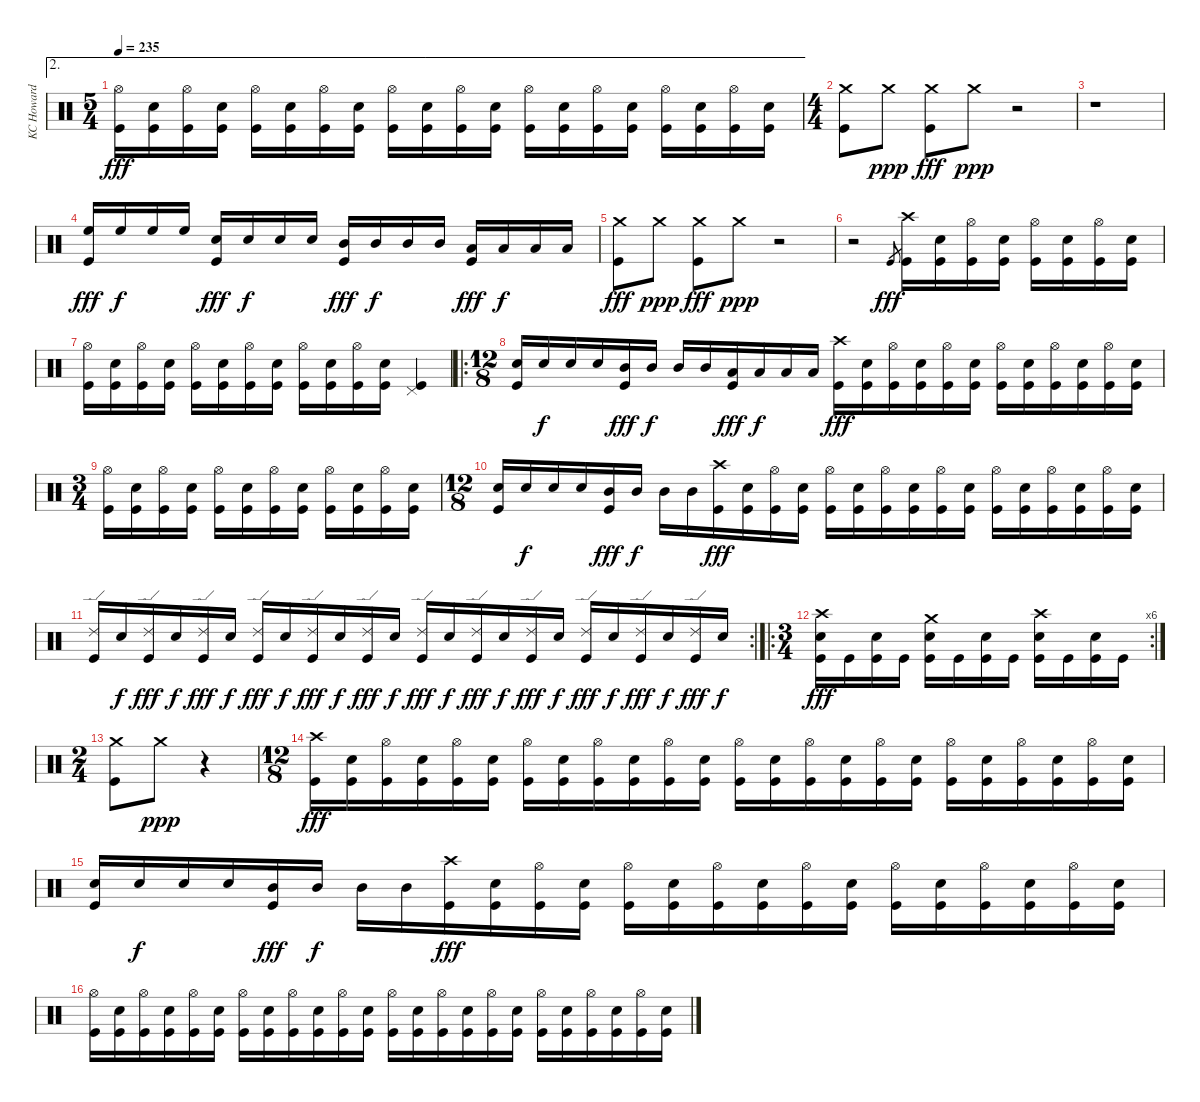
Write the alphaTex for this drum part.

\track ("KC Howard" "KC Howard") {instrument percussion}
\staff {score}
\articulation defaults
\ae 2
\ts (5 4)
\tempo 235
\clef neutral
\ks c
("Hi-Hat (open)" "Kick (hit)").16{dy fff} ("Electric Snare (hit)" "Kick (hit)").16 ("Hi-Hat (open)" "Kick (hit)").16 ("Electric Snare (hit)" "Kick (hit)").16 ("Hi-Hat (open)" "Kick (hit)").16 ("Electric Snare (hit)" "Kick (hit)").16 ("Hi-Hat (open)" "Kick (hit)").16 ("Electric Snare (hit)" "Kick (hit)").16 ("Hi-Hat (open)" "Kick (hit)").16 ("Electric Snare (hit)" "Kick (hit)").16 ("Hi-Hat (open)" "Kick (hit)").16 ("Electric Snare (hit)" "Kick (hit)").16 ("Hi-Hat (open)" "Kick (hit)").16 ("Electric Snare (hit)" "Kick (hit)").16 ("Hi-Hat (open)" "Kick (hit)").16 ("Electric Snare (hit)" "Kick (hit)").16 ("Hi-Hat (open)" "Kick (hit)").16 ("Electric Snare (hit)" "Kick (hit)").16 ("Hi-Hat (open)" "Kick (hit)").16 ("Electric Snare (hit)" "Kick (hit)").16 |
\ts (4 4)
("Crash medium (hit)" "Kick (hit)").8 "Crash medium (hit)".8{dy ppp} ("Crash medium (hit)" "Kick (hit)").8{dy fff} "Crash medium (hit)".8{dy ppp} r.2 |
r.1 |
("High Floor Tom (hit)" "Kick (hit)").16{dy fff} "High Floor Tom (hit)".16{dy f} "High Floor Tom (hit)".16 "High Floor Tom (hit)".16 ("Electric Snare (hit)" "Kick (hit)").16{dy fff} "Electric Snare (hit)".16{dy f} "Electric Snare (hit)".16 "Electric Snare (hit)".16 ("Mid Tom (hit)" "Kick (hit)").16{dy fff} "Mid Tom (hit)".16{dy f} "Mid Tom (hit)".16 "Mid Tom (hit)".16 ("Low Tom (hit)" "Kick (hit)").16{dy fff} "Low Tom (hit)".16{dy f} "Low Tom (hit)".16 "Low Tom (hit)".16 |
("Crash medium (hit)" "Kick (hit)").8{dy fff} "Crash medium (hit)".8{dy ppp} ("Crash medium (hit)" "Kick (hit)").8{dy fff} "Crash medium (hit)".8{dy ppp} r.2 |
r.2 "Kick (hit)".8{gr dy fff} ("Crash high (hit)" "Kick (hit)").16 ("Electric Snare (hit)" "Kick (hit)").16 ("Hi-Hat (open)" "Kick (hit)").16 ("Electric Snare (hit)" "Kick (hit)").16 ("Hi-Hat (open)" "Kick (hit)").16 ("Electric Snare (hit)" "Kick (hit)").16 ("Hi-Hat (open)" "Kick (hit)").16 ("Electric Snare (hit)" "Kick (hit)").16 |
("Hi-Hat (open)" "Kick (hit)").16 ("Electric Snare (hit)" "Kick (hit)").16 ("Hi-Hat (open)" "Kick (hit)").16 ("Electric Snare (hit)" "Kick (hit)").16 ("Hi-Hat (open)" "Kick (hit)").16 ("Electric Snare (hit)" "Kick (hit)").16 ("Hi-Hat (open)" "Kick (hit)").16 ("Electric Snare (hit)" "Kick (hit)").16 ("Hi-Hat (open)" "Kick (hit)").16 ("Electric Snare (hit)" "Kick (hit)").16 ("Hi-Hat (open)" "Kick (hit)").16 ("Electric Snare (hit)" "Kick (hit)").16 ("Pedal Hi-Hat (hit)" "Kick (hit)").4 |
\ro
\ts (12 8)
("Electric Snare (hit)" "Kick (hit)").16 "Electric Snare (hit)".16{dy f} "Electric Snare (hit)".16 "Electric Snare (hit)".16 ("Mid Tom (hit)" "Kick (hit)").16{dy fff} "Mid Tom (hit)".16{dy f} "Mid Tom (hit)".16 "Mid Tom (hit)".16 ("Low Tom (hit)" "Kick (hit)").16{dy fff} "Low Tom (hit)".16{dy f} "Low Tom (hit)".16 "Low Tom (hit)".16 ("Crash high (hit)" "Kick (hit)").16{dy fff} ("Electric Snare (hit)" "Kick (hit)").16 ("Hi-Hat (open)" "Kick (hit)").16 ("Electric Snare (hit)" "Kick (hit)").16 ("Hi-Hat (open)" "Kick (hit)").16 ("Electric Snare (hit)" "Kick (hit)").16 ("Hi-Hat (open)" "Kick (hit)").16 ("Electric Snare (hit)" "Kick (hit)").16 ("Hi-Hat (open)" "Kick (hit)").16 ("Electric Snare (hit)" "Kick (hit)").16 ("Hi-Hat (open)" "Kick (hit)").16 ("Electric Snare (hit)" "Kick (hit)").16 |
\ts (3 4)
("Hi-Hat (open)" "Kick (hit)").16 ("Electric Snare (hit)" "Kick (hit)").16 ("Hi-Hat (open)" "Kick (hit)").16 ("Electric Snare (hit)" "Kick (hit)").16 ("Hi-Hat (open)" "Kick (hit)").16 ("Electric Snare (hit)" "Kick (hit)").16 ("Hi-Hat (open)" "Kick (hit)").16 ("Electric Snare (hit)" "Kick (hit)").16 ("Hi-Hat (open)" "Kick (hit)").16 ("Electric Snare (hit)" "Kick (hit)").16 ("Hi-Hat (open)" "Kick (hit)").16 ("Electric Snare (hit)" "Kick (hit)").16 |
\ts (12 8)
("Electric Snare (hit)" "Kick (hit)").16 "Electric Snare (hit)".16{dy f} "Electric Snare (hit)".16 "Electric Snare (hit)".16 ("Mid Tom (hit)" "Kick (hit)").16{dy fff} "Mid Tom (hit)".16{dy f} "Mid Tom (hit)".16 "Mid Tom (hit)".16 ("Crash high (hit)" "Kick (hit)").16{dy fff} ("Electric Snare (hit)" "Kick (hit)").16 ("Hi-Hat (open)" "Kick (hit)").16 ("Electric Snare (hit)" "Kick (hit)").16 ("Hi-Hat (open)" "Kick (hit)").16 ("Electric Snare (hit)" "Kick (hit)").16 ("Hi-Hat (open)" "Kick (hit)").16 ("Electric Snare (hit)" "Kick (hit)").16 ("Hi-Hat (open)" "Kick (hit)").16 ("Electric Snare (hit)" "Kick (hit)").16 ("Hi-Hat (open)" "Kick (hit)").16 ("Electric Snare (hit)" "Kick (hit)").16 ("Hi-Hat (open)" "Kick (hit)").16 ("Electric Snare (hit)" "Kick (hit)").16 ("Hi-Hat (open)" "Kick (hit)").16 ("Electric Snare (hit)" "Kick (hit)").16 |
\rc 2
("Ride (edge) 2" "Kick (hit)").16 "Electric Snare (hit)".16{dy f} ("Ride (edge) 2" "Kick (hit)").16{dy fff} "Electric Snare (hit)".16{dy f} ("Ride (edge) 2" "Kick (hit)").16{dy fff} "Electric Snare (hit)".16{dy f} ("Ride (edge) 2" "Kick (hit)").16{dy fff} "Electric Snare (hit)".16{dy f} ("Ride (edge) 2" "Kick (hit)").16{dy fff} "Electric Snare (hit)".16{dy f} ("Ride (edge) 2" "Kick (hit)").16{dy fff} "Electric Snare (hit)".16{dy f} ("Ride (edge) 2" "Kick (hit)").16{dy fff} "Electric Snare (hit)".16{dy f} ("Ride (edge) 2" "Kick (hit)").16{dy fff} "Electric Snare (hit)".16{dy f} ("Ride (edge) 2" "Kick (hit)").16{dy fff} "Electric Snare (hit)".16{dy f} ("Ride (edge) 2" "Kick (hit)").16{dy fff} "Electric Snare (hit)".16{dy f} ("Ride (edge) 2" "Kick (hit)").16{dy fff} "Electric Snare (hit)".16{dy f} ("Ride (edge) 2" "Kick (hit)").16{dy fff} "Electric Snare (hit)".16{dy f} |
\ro
\rc 6
\ts (3 4)
("Crash high (hit)" "Electric Snare (hit)" "Kick (hit)").16{dy fff} "Kick (hit)".16 ("Electric Snare (hit)" "Kick (hit)").16 "Kick (hit)".16 ("Crash medium (hit)" "Electric Snare (hit)" "Kick (hit)").16 "Kick (hit)".16 ("Electric Snare (hit)" "Kick (hit)").16 "Kick (hit)".16 ("Crash high (hit)" "Electric Snare (hit)" "Kick (hit)").16 "Kick (hit)".16 ("Electric Snare (hit)" "Kick (hit)").16 "Kick (hit)".16 |
\ts (2 4)
("Crash medium (hit)" "Kick (hit)").8 "Crash medium (hit)".8{dy ppp} r.4 |
\ts (12 8)
("Crash high (hit)" "Kick (hit)").16{dy fff} ("Electric Snare (hit)" "Kick (hit)").16 ("Hi-Hat (open)" "Kick (hit)").16 ("Electric Snare (hit)" "Kick (hit)").16 ("Hi-Hat (open)" "Kick (hit)").16 ("Electric Snare (hit)" "Kick (hit)").16 ("Hi-Hat (open)" "Kick (hit)").16 ("Electric Snare (hit)" "Kick (hit)").16 ("Hi-Hat (open)" "Kick (hit)").16 ("Electric Snare (hit)" "Kick (hit)").16 ("Hi-Hat (open)" "Kick (hit)").16 ("Electric Snare (hit)" "Kick (hit)").16 ("Hi-Hat (open)" "Kick (hit)").16 ("Electric Snare (hit)" "Kick (hit)").16 ("Hi-Hat (open)" "Kick (hit)").16 ("Electric Snare (hit)" "Kick (hit)").16 ("Hi-Hat (open)" "Kick (hit)").16 ("Electric Snare (hit)" "Kick (hit)").16 ("Hi-Hat (open)" "Kick (hit)").16 ("Electric Snare (hit)" "Kick (hit)").16 ("Hi-Hat (open)" "Kick (hit)").16 ("Electric Snare (hit)" "Kick (hit)").16 ("Hi-Hat (open)" "Kick (hit)").16 ("Electric Snare (hit)" "Kick (hit)").16 |
("Electric Snare (hit)" "Kick (hit)").16 "Electric Snare (hit)".16{dy f} "Electric Snare (hit)".16 "Electric Snare (hit)".16 ("Mid Tom (hit)" "Kick (hit)").16{dy fff} "Mid Tom (hit)".16{dy f} "Mid Tom (hit)".16 "Mid Tom (hit)".16 ("Crash high (hit)" "Kick (hit)").16{dy fff} ("Electric Snare (hit)" "Kick (hit)").16 ("Hi-Hat (open)" "Kick (hit)").16 ("Electric Snare (hit)" "Kick (hit)").16 ("Hi-Hat (open)" "Kick (hit)").16 ("Electric Snare (hit)" "Kick (hit)").16 ("Hi-Hat (open)" "Kick (hit)").16 ("Electric Snare (hit)" "Kick (hit)").16 ("Hi-Hat (open)" "Kick (hit)").16 ("Electric Snare (hit)" "Kick (hit)").16 ("Hi-Hat (open)" "Kick (hit)").16 ("Electric Snare (hit)" "Kick (hit)").16 ("Hi-Hat (open)" "Kick (hit)").16 ("Electric Snare (hit)" "Kick (hit)").16 ("Hi-Hat (open)" "Kick (hit)").16 ("Electric Snare (hit)" "Kick (hit)").16 |
("Hi-Hat (open)" "Kick (hit)").16 ("Electric Snare (hit)" "Kick (hit)").16 ("Hi-Hat (open)" "Kick (hit)").16 ("Electric Snare (hit)" "Kick (hit)").16 ("Hi-Hat (open)" "Kick (hit)").16 ("Electric Snare (hit)" "Kick (hit)").16 ("Hi-Hat (open)" "Kick (hit)").16 ("Electric Snare (hit)" "Kick (hit)").16 ("Hi-Hat (open)" "Kick (hit)").16 ("Electric Snare (hit)" "Kick (hit)").16 ("Hi-Hat (open)" "Kick (hit)").16 ("Electric Snare (hit)" "Kick (hit)").16 ("Hi-Hat (open)" "Kick (hit)").16 ("Electric Snare (hit)" "Kick (hit)").16 ("Hi-Hat (open)" "Kick (hit)").16 ("Electric Snare (hit)" "Kick (hit)").16 ("Hi-Hat (open)" "Kick (hit)").16 ("Electric Snare (hit)" "Kick (hit)").16 ("Hi-Hat (open)" "Kick (hit)").16 ("Electric Snare (hit)" "Kick (hit)").16 ("Hi-Hat (open)" "Kick (hit)").16 ("Electric Snare (hit)" "Kick (hit)").16 ("Hi-Hat (open)" "Kick (hit)").16 ("Electric Snare (hit)" "Kick (hit)").16
